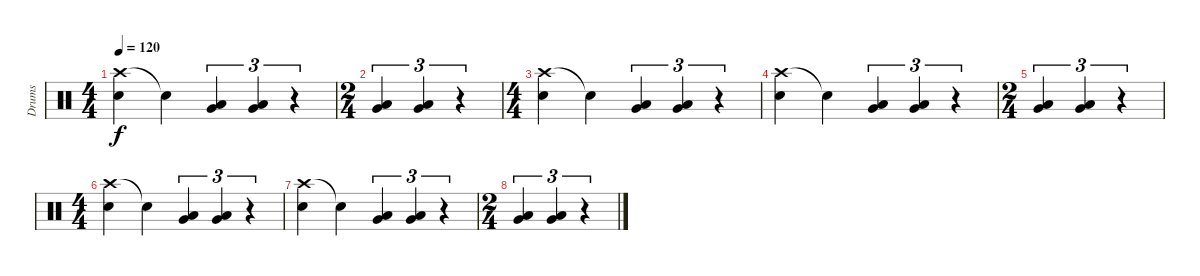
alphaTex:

\track ("Drums" "Drums") {instrument percussion}
\staff {score}
\articulation defaults
\ts (4 4)
\tempo 120
\clef neutral
\ks c
("Crash high (hit)" "Electric Snare (hit)").4{dy f} "Snare (hit)"{t}.4 ("Very Low Tom (hit)" "Low Floor Tom (hit)").4{tu (3 2)} ("Very Low Tom (hit)" "Low Floor Tom (hit)").4{tu (3 2)} r.4{tu (3 2)} |
\ts (2 4)
("Very Low Tom (hit)" "Low Floor Tom (hit)").4{tu (3 2)} ("Very Low Tom (hit)" "Low Floor Tom (hit)").4{tu (3 2)} r.4{tu (3 2)} |
\ts (4 4)
("Crash high (hit)" "Electric Snare (hit)").4 "Snare (hit)"{t}.4 ("Very Low Tom (hit)" "Low Floor Tom (hit)").4{tu (3 2)} ("Very Low Tom (hit)" "Low Floor Tom (hit)").4{tu (3 2)} r.4{tu (3 2)} |
("Crash high (hit)" "Electric Snare (hit)").4 "Snare (hit)"{t}.4 ("Very Low Tom (hit)" "Low Floor Tom (hit)").4{tu (3 2)} ("Very Low Tom (hit)" "Low Floor Tom (hit)").4{tu (3 2)} r.4{tu (3 2)} |
\ts (2 4)
("Very Low Tom (hit)" "Low Floor Tom (hit)").4{tu (3 2)} ("Very Low Tom (hit)" "Low Floor Tom (hit)").4{tu (3 2)} r.4{tu (3 2)} |
\ts (4 4)
("Crash high (hit)" "Electric Snare (hit)").4 "Snare (hit)"{t}.4 ("Very Low Tom (hit)" "Low Floor Tom (hit)").4{tu (3 2)} ("Very Low Tom (hit)" "Low Floor Tom (hit)").4{tu (3 2)} r.4{tu (3 2)} |
("Crash high (hit)" "Electric Snare (hit)").4 "Snare (hit)"{t}.4 ("Very Low Tom (hit)" "Low Floor Tom (hit)").4{tu (3 2)} ("Very Low Tom (hit)" "Low Floor Tom (hit)").4{tu (3 2)} r.4{tu (3 2)} |
\ts (2 4)
("Very Low Tom (hit)" "Low Floor Tom (hit)").4{tu (3 2)} ("Very Low Tom (hit)" "Low Floor Tom (hit)").4{tu (3 2)} r.4{tu (3 2)}
